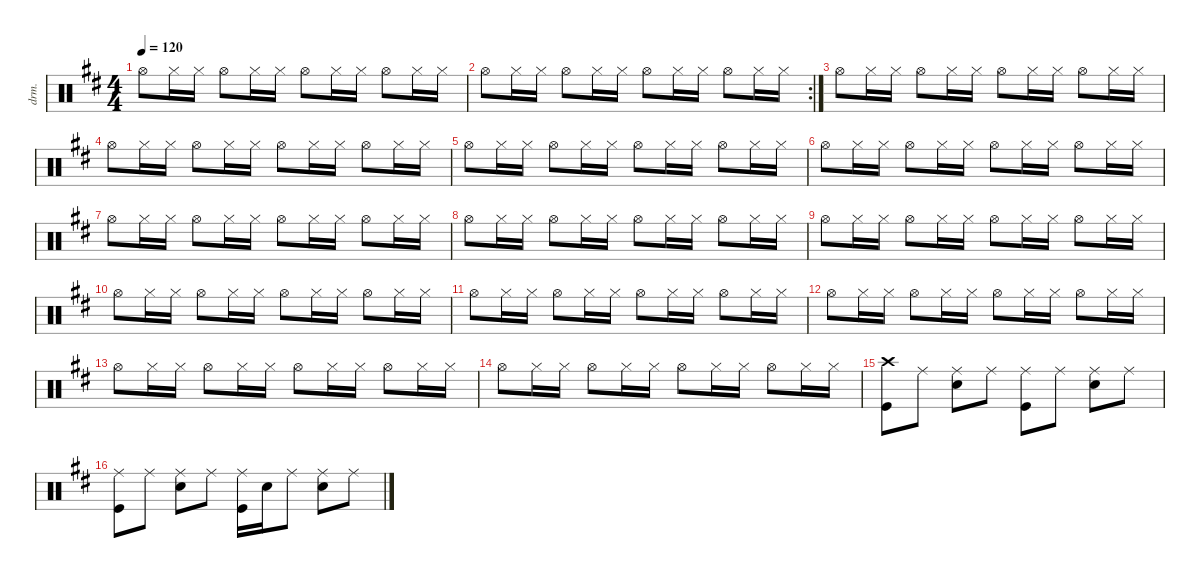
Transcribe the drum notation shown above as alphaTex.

\defaultSystemsLayout 4
\hideDynamics
\bracketExtendMode nobrackets
\otherSystemsTrackNameOrientation horizontal
\track ("Drums" "drm.") {instrument percussion}
\staff {score}
\articulation defaults
\ts (4 4)
\tempo 120
\clef neutral
\ks d "Hi-Hat (open)"{acc forcenatural}.8{dy f} "Hi-Hat (closed)"{acc forcenatural}.16 "Hi-Hat (closed)"{acc forcenatural}.16 "Hi-Hat (open)"{acc forcenatural}.8 "Hi-Hat (closed)"{acc forcenatural}.16 "Hi-Hat (closed)"{acc forcenatural}.16 "Hi-Hat (open)"{acc forcenatural}.8 "Hi-Hat (closed)"{acc forcenatural}.16 "Hi-Hat (closed)"{acc forcenatural}.16 "Hi-Hat (open)"{acc forcenatural}.8 "Hi-Hat (closed)"{acc forcenatural}.16 "Hi-Hat (closed)"{acc forcenatural}.16
|
\rc 2 "Hi-Hat (open)"{acc forcenatural}.8 "Hi-Hat (closed)"{acc forcenatural}.16 "Hi-Hat (closed)"{acc forcenatural}.16 "Hi-Hat (open)"{acc forcenatural}.8 "Hi-Hat (closed)"{acc forcenatural}.16 "Hi-Hat (closed)"{acc forcenatural}.16 "Hi-Hat (open)"{acc forcenatural}.8 "Hi-Hat (closed)"{acc forcenatural}.16 "Hi-Hat (closed)"{acc forcenatural}.16 "Hi-Hat (open)"{acc forcenatural}.8 "Hi-Hat (closed)"{acc forcenatural}.16 "Hi-Hat (closed)"{acc forcenatural}.16
|
"Hi-Hat (open)"{acc forcenatural}.8 "Hi-Hat (closed)"{acc forcenatural}.16 "Hi-Hat (closed)"{acc forcenatural}.16 "Hi-Hat (open)"{acc forcenatural}.8 "Hi-Hat (closed)"{acc forcenatural}.16 "Hi-Hat (closed)"{acc forcenatural}.16 "Hi-Hat (open)"{acc forcenatural}.8 "Hi-Hat (closed)"{acc forcenatural}.16 "Hi-Hat (closed)"{acc forcenatural}.16 "Hi-Hat (open)"{acc forcenatural}.8 "Hi-Hat (closed)"{acc forcenatural}.16 "Hi-Hat (closed)"{acc forcenatural}.16 |
"Hi-Hat (open)"{acc forcenatural}.8 "Hi-Hat (closed)"{acc forcenatural}.16 "Hi-Hat (closed)"{acc forcenatural}.16 "Hi-Hat (open)"{acc forcenatural}.8 "Hi-Hat (closed)"{acc forcenatural}.16 "Hi-Hat (closed)"{acc forcenatural}.16 "Hi-Hat (open)"{acc forcenatural}.8 "Hi-Hat (closed)"{acc forcenatural}.16 "Hi-Hat (closed)"{acc forcenatural}.16 "Hi-Hat (open)"{acc forcenatural}.8 "Hi-Hat (closed)"{acc forcenatural}.16 "Hi-Hat (closed)"{acc forcenatural}.16 |
"Hi-Hat (open)"{acc forcenatural}.8 "Hi-Hat (closed)"{acc forcenatural}.16 "Hi-Hat (closed)"{acc forcenatural}.16 "Hi-Hat (open)"{acc forcenatural}.8 "Hi-Hat (closed)"{acc forcenatural}.16 "Hi-Hat (closed)"{acc forcenatural}.16 "Hi-Hat (open)"{acc forcenatural}.8 "Hi-Hat (closed)"{acc forcenatural}.16 "Hi-Hat (closed)"{acc forcenatural}.16 "Hi-Hat (open)"{acc forcenatural}.8 "Hi-Hat (closed)"{acc forcenatural}.16 "Hi-Hat (closed)"{acc forcenatural}.16 |
"Hi-Hat (open)"{acc forcenatural}.8 "Hi-Hat (closed)"{acc forcenatural}.16 "Hi-Hat (closed)"{acc forcenatural}.16 "Hi-Hat (open)"{acc forcenatural}.8 "Hi-Hat (closed)"{acc forcenatural}.16 "Hi-Hat (closed)"{acc forcenatural}.16 "Hi-Hat (open)"{acc forcenatural}.8 "Hi-Hat (closed)"{acc forcenatural}.16 "Hi-Hat (closed)"{acc forcenatural}.16 "Hi-Hat (open)"{acc forcenatural}.8 "Hi-Hat (closed)"{acc forcenatural}.16 "Hi-Hat (closed)"{acc forcenatural}.16 |
"Hi-Hat (open)"{acc forcenatural}.8 "Hi-Hat (closed)"{acc forcenatural}.16 "Hi-Hat (closed)"{acc forcenatural}.16 "Hi-Hat (open)"{acc forcenatural}.8 "Hi-Hat (closed)"{acc forcenatural}.16 "Hi-Hat (closed)"{acc forcenatural}.16 "Hi-Hat (open)"{acc forcenatural}.8 "Hi-Hat (closed)"{acc forcenatural}.16 "Hi-Hat (closed)"{acc forcenatural}.16 "Hi-Hat (open)"{acc forcenatural}.8 "Hi-Hat (closed)"{acc forcenatural}.16 "Hi-Hat (closed)"{acc forcenatural}.16 |
"Hi-Hat (open)"{acc forcenatural}.8 "Hi-Hat (closed)"{acc forcenatural}.16 "Hi-Hat (closed)"{acc forcenatural}.16 "Hi-Hat (open)"{acc forcenatural}.8 "Hi-Hat (closed)"{acc forcenatural}.16 "Hi-Hat (closed)"{acc forcenatural}.16 "Hi-Hat (open)"{acc forcenatural}.8 "Hi-Hat (closed)"{acc forcenatural}.16 "Hi-Hat (closed)"{acc forcenatural}.16 "Hi-Hat (open)"{acc forcenatural}.8 "Hi-Hat (closed)"{acc forcenatural}.16 "Hi-Hat (closed)"{acc forcenatural}.16 |
"Hi-Hat (open)"{acc forcenatural}.8 "Hi-Hat (closed)"{acc forcenatural}.16 "Hi-Hat (closed)"{acc forcenatural}.16 "Hi-Hat (open)"{acc forcenatural}.8 "Hi-Hat (closed)"{acc forcenatural}.16 "Hi-Hat (closed)"{acc forcenatural}.16 "Hi-Hat (open)"{acc forcenatural}.8 "Hi-Hat (closed)"{acc forcenatural}.16 "Hi-Hat (closed)"{acc forcenatural}.16 "Hi-Hat (open)"{acc forcenatural}.8 "Hi-Hat (closed)"{acc forcenatural}.16 "Hi-Hat (closed)"{acc forcenatural}.16 |
"Hi-Hat (open)"{acc forcenatural}.8 "Hi-Hat (closed)"{acc forcenatural}.16 "Hi-Hat (closed)"{acc forcenatural}.16 "Hi-Hat (open)"{acc forcenatural}.8 "Hi-Hat (closed)"{acc forcenatural}.16 "Hi-Hat (closed)"{acc forcenatural}.16 "Hi-Hat (open)"{acc forcenatural}.8 "Hi-Hat (closed)"{acc forcenatural}.16 "Hi-Hat (closed)"{acc forcenatural}.16 "Hi-Hat (open)"{acc forcenatural}.8 "Hi-Hat (closed)"{acc forcenatural}.16 "Hi-Hat (closed)"{acc forcenatural}.16 |
"Hi-Hat (open)"{acc forcenatural}.8 "Hi-Hat (closed)"{acc forcenatural}.16 "Hi-Hat (closed)"{acc forcenatural}.16 "Hi-Hat (open)"{acc forcenatural}.8 "Hi-Hat (closed)"{acc forcenatural}.16 "Hi-Hat (closed)"{acc forcenatural}.16 "Hi-Hat (open)"{acc forcenatural}.8 "Hi-Hat (closed)"{acc forcenatural}.16 "Hi-Hat (closed)"{acc forcenatural}.16 "Hi-Hat (open)"{acc forcenatural}.8 "Hi-Hat (closed)"{acc forcenatural}.16 "Hi-Hat (closed)"{acc forcenatural}.16 |
"Hi-Hat (open)"{acc forcenatural}.8 "Hi-Hat (closed)"{acc forcenatural}.16 "Hi-Hat (closed)"{acc forcenatural}.16 "Hi-Hat (open)"{acc forcenatural}.8 "Hi-Hat (closed)"{acc forcenatural}.16 "Hi-Hat (closed)"{acc forcenatural}.16 "Hi-Hat (open)"{acc forcenatural}.8 "Hi-Hat (closed)"{acc forcenatural}.16 "Hi-Hat (closed)"{acc forcenatural}.16 "Hi-Hat (open)"{acc forcenatural}.8 "Hi-Hat (closed)"{acc forcenatural}.16 "Hi-Hat (closed)"{acc forcenatural}.16 |
"Hi-Hat (open)"{acc forcenatural}.8 "Hi-Hat (closed)"{acc forcenatural}.16 "Hi-Hat (closed)"{acc forcenatural}.16 "Hi-Hat (open)"{acc forcenatural}.8 "Hi-Hat (closed)"{acc forcenatural}.16 "Hi-Hat (closed)"{acc forcenatural}.16 "Hi-Hat (open)"{acc forcenatural}.8 "Hi-Hat (closed)"{acc forcenatural}.16 "Hi-Hat (closed)"{acc forcenatural}.16 "Hi-Hat (open)"{acc forcenatural}.8 "Hi-Hat (closed)"{acc forcenatural}.16 "Hi-Hat (closed)"{acc forcenatural}.16 |
"Hi-Hat (open)"{acc forcenatural}.8 "Hi-Hat (closed)"{acc forcenatural}.16 "Hi-Hat (closed)"{acc forcenatural}.16 "Hi-Hat (open)"{acc forcenatural}.8 "Hi-Hat (closed)"{acc forcenatural}.16 "Hi-Hat (closed)"{acc forcenatural}.16 "Hi-Hat (open)"{acc forcenatural}.8 "Hi-Hat (closed)"{acc forcenatural}.16 "Hi-Hat (closed)"{acc forcenatural}.16 "Hi-Hat (open)"{acc forcenatural}.8 "Hi-Hat (closed)"{acc forcenatural}.16 "Hi-Hat (closed)"{acc forcenatural}.16 |
("Crash high (hit)"{acc forcenatural} "Kick (hit)"{acc forcenatural}).8 "Ride (middle)"{acc forcenatural}.8 ("Ride (middle)"{acc forcenatural} "Snare (hit) 2"{acc forcenatural}).8 "Ride (middle)"{acc forcenatural}.8 ("Ride (middle)"{acc forcenatural} "Kick (hit)"{acc forcenatural}).8 "Ride (middle)"{acc forcenatural}.8 ("Ride (middle)"{acc forcenatural} "Snare (hit) 2"{acc forcenatural}).8 "Ride (middle)"{acc forcenatural}.8 |
("Ride (middle)"{acc forcenatural} "Kick (hit)"{acc forcenatural}).8 "Ride (middle)"{acc forcenatural}.8 ("Ride (middle)"{acc forcenatural} "Snare (hit) 2"{acc forcenatural}).8 "Ride (middle)"{acc forcenatural}.8 ("Ride (middle)"{acc forcenatural} "Kick (hit)"{acc forcenatural}).16 "Snare (hit) 2"{acc forcenatural}.16 "Ride (middle)"{acc forcenatural}.8 ("Ride (middle)"{acc forcenatural} "Snare (hit) 2"{acc forcenatural}).8 "Ride (middle)"{acc forcenatural}.8
